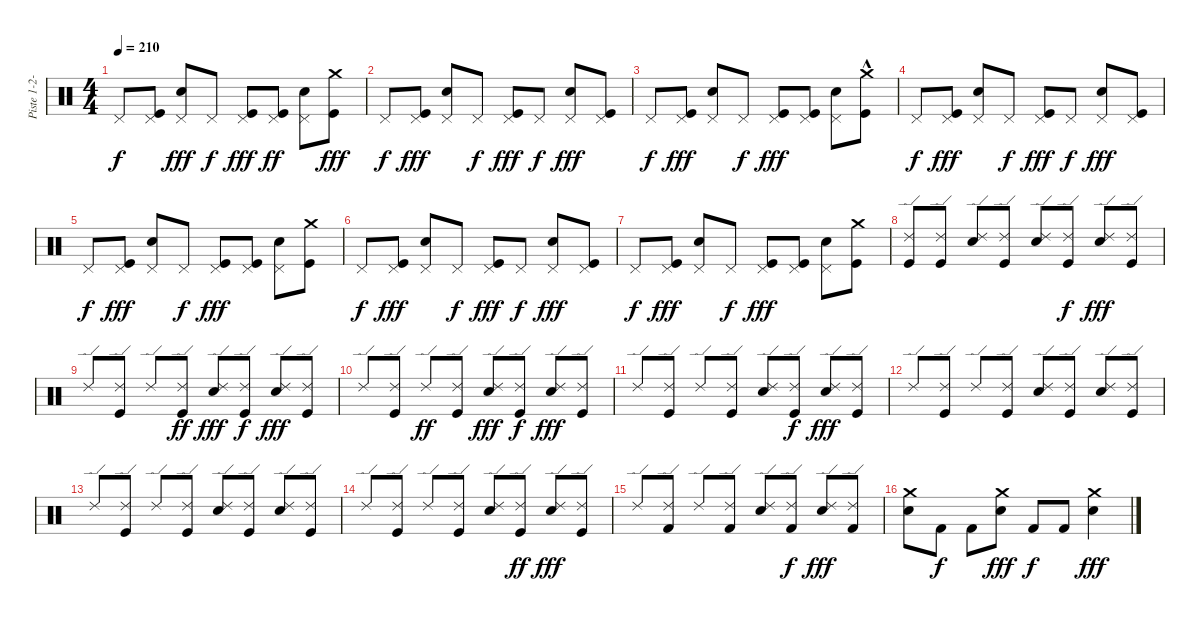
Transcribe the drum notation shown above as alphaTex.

\track ("Piste 1-2-3-4" "Piste 1-2-") {instrument percussion}
\staff {score}
\articulation defaults
\ts (4 4)
\tempo 210
\clef neutral
\ks c "Pedal Hi-Hat (hit)".8{dy f}
("Pedal Hi-Hat (hit)" "Kick (hit)").8 ("Pedal Hi-Hat (hit)" "Snare (hit) 2").8{dy fff} "Pedal Hi-Hat (hit)".8{dy f} ("Pedal Hi-Hat (hit)" "Kick (hit)").8{dy fff} ("Pedal Hi-Hat (hit)" "Kick (hit)").8{dy ff} ("Pedal Hi-Hat (hit)" "Snare (hit) 2").8 ("Crash medium (hit)" "Kick (hit)").8{dy fff} |
"Pedal Hi-Hat (hit)".8{dy f} ("Pedal Hi-Hat (hit)" "Kick (hit)").8{dy fff} ("Pedal Hi-Hat (hit)" "Snare (hit) 2").8 "Pedal Hi-Hat (hit)".8{dy f} ("Pedal Hi-Hat (hit)" "Kick (hit)").8{dy fff} "Pedal Hi-Hat (hit)".8{dy f} ("Pedal Hi-Hat (hit)" "Snare (hit) 2").8{dy fff} ("Pedal Hi-Hat (hit)" "Kick (hit)").8 |
"Pedal Hi-Hat (hit)".8{dy f} ("Pedal Hi-Hat (hit)" "Kick (hit)").8{dy fff} ("Pedal Hi-Hat (hit)" "Snare (hit) 2").8 "Pedal Hi-Hat (hit)".8{dy f} ("Pedal Hi-Hat (hit)" "Kick (hit)").8{dy fff} ("Pedal Hi-Hat (hit)" "Kick (hit)").8 ("Pedal Hi-Hat (hit)" "Snare (hit) 2").8 ("Crash medium (hit)"{hac} "Kick (hit)").8 |
"Pedal Hi-Hat (hit)".8{dy f} ("Pedal Hi-Hat (hit)" "Kick (hit)").8{dy fff} ("Pedal Hi-Hat (hit)" "Snare (hit) 2").8 "Pedal Hi-Hat (hit)".8{dy f} ("Pedal Hi-Hat (hit)" "Kick (hit)").8{dy fff} "Pedal Hi-Hat (hit)".8{dy f} ("Pedal Hi-Hat (hit)" "Snare (hit) 2").8{dy fff} ("Pedal Hi-Hat (hit)" "Kick (hit)").8 |
"Pedal Hi-Hat (hit)".8{dy f} ("Pedal Hi-Hat (hit)" "Kick (hit)").8{dy fff} ("Pedal Hi-Hat (hit)" "Snare (hit) 2").8 "Pedal Hi-Hat (hit)".8{dy f} ("Pedal Hi-Hat (hit)" "Kick (hit)").8{dy fff} ("Pedal Hi-Hat (hit)" "Kick (hit)").8 ("Pedal Hi-Hat (hit)" "Snare (hit) 2").8 ("Crash medium (hit)" "Kick (hit)").8 |
"Pedal Hi-Hat (hit)".8{dy f} ("Pedal Hi-Hat (hit)" "Kick (hit)").8{dy fff} ("Pedal Hi-Hat (hit)" "Snare (hit) 2").8 "Pedal Hi-Hat (hit)".8{dy f} ("Pedal Hi-Hat (hit)" "Kick (hit)").8{dy fff} "Pedal Hi-Hat (hit)".8{dy f} ("Pedal Hi-Hat (hit)" "Snare (hit) 2").8{dy fff} ("Pedal Hi-Hat (hit)" "Kick (hit)").8 |
"Pedal Hi-Hat (hit)".8{dy f} ("Pedal Hi-Hat (hit)" "Kick (hit)").8{dy fff} ("Pedal Hi-Hat (hit)" "Snare (hit) 2").8 "Pedal Hi-Hat (hit)".8{dy f} ("Pedal Hi-Hat (hit)" "Kick (hit)").8{dy fff} ("Pedal Hi-Hat (hit)" "Kick (hit)").8 ("Pedal Hi-Hat (hit)" "Snare (hit) 2").8 ("Crash medium (hit)" "Kick (hit)").8 |
("Ride (edge) 2" "Kick (hit)").8 ("Ride (edge) 2" "Kick (hit)").8 ("Ride (edge) 2" "Snare (hit) 2").8 ("Ride (edge) 2" "Kick (hit)").8 ("Ride (edge) 2" "Snare (hit) 2").8 ("Ride (edge) 2" "Kick (hit)").8{dy f} ("Ride (edge) 2" "Snare (hit) 2").8{dy fff} ("Ride (edge) 2" "Kick (hit)").8 |
"Ride (edge) 2".8 ("Ride (edge) 2" "Kick (hit)").8 "Ride (edge) 2".8 ("Ride (edge) 2" "Kick (hit)").8{dy ff} ("Ride (edge) 2" "Snare (hit) 2").8{dy fff} ("Ride (edge) 2" "Kick (hit)").8{dy f} ("Ride (edge) 2" "Snare (hit) 2").8{dy fff} ("Ride (edge) 2" "Kick (hit)").8 |
"Ride (edge) 2".8 ("Ride (edge) 2" "Kick (hit)").8 "Ride (edge) 2".8{dy ff} ("Ride (edge) 2" "Kick (hit)").8 ("Ride (edge) 2" "Snare (hit) 2").8{dy fff} ("Ride (edge) 2" "Kick (hit)").8{dy f} ("Ride (edge) 2" "Snare (hit) 2").8{dy fff} ("Ride (edge) 2" "Kick (hit)").8 |
"Ride (edge) 2".8 ("Ride (edge) 2" "Kick (hit)").8 "Ride (edge) 2".8 ("Ride (edge) 2" "Kick (hit)").8 ("Ride (edge) 2" "Snare (hit) 2").8 ("Ride (edge) 2" "Kick (hit)").8{dy f} ("Ride (edge) 2" "Snare (hit) 2").8{dy fff} ("Ride (edge) 2" "Kick (hit)").8 |
"Ride (edge) 2".8 ("Ride (edge) 2" "Kick (hit)").8 "Ride (edge) 2".8 ("Ride (edge) 2" "Kick (hit)").8 ("Ride (edge) 2" "Snare (hit) 2").8 ("Ride (edge) 2" "Kick (hit)").8 ("Ride (edge) 2" "Snare (hit) 2").8 ("Ride (edge) 2" "Kick (hit)").8 |
"Ride (edge) 2".8 ("Ride (edge) 2" "Kick (hit)").8 "Ride (edge) 2".8 ("Ride (edge) 2" "Kick (hit)").8 ("Ride (edge) 2" "Snare (hit) 2").8 ("Ride (edge) 2" "Kick (hit)").8 ("Ride (edge) 2" "Snare (hit) 2").8 ("Ride (edge) 2" "Kick (hit)").8 |
"Ride (edge) 2".8 ("Ride (edge) 2" "Kick (hit)").8 "Ride (edge) 2".8 ("Ride (edge) 2" "Kick (hit)").8 ("Ride (edge) 2" "Snare (hit) 2").8 ("Ride (edge) 2" "Kick (hit)").8{dy ff} ("Ride (edge) 2" "Snare (hit) 2").8{dy fff} ("Ride (edge) 2" "Kick (hit)").8 |
"Ride (edge) 2".8 ("Ride (edge) 2" "Kick (hit) 2").8 "Ride (edge) 2".8 ("Ride (edge) 2" "Kick (hit) 2").8 ("Ride (edge) 2" "Snare (hit) 2").8 ("Ride (edge) 2" "Kick (hit) 2").8{dy f} ("Ride (edge) 2" "Snare (hit) 2").8{dy fff} ("Ride (edge) 2" "Kick (hit) 2").8 |
("Crash medium (hit)" "Snare (hit) 2").8 "Kick (hit) 2".8{dy f} "Kick (hit) 2".8 ("Crash medium (hit)" "Snare (hit) 2").8{dy fff} "Kick (hit) 2".8{dy f} "Kick (hit) 2".8 ("Crash medium (hit)" "Snare (hit) 2").4{dy fff}
